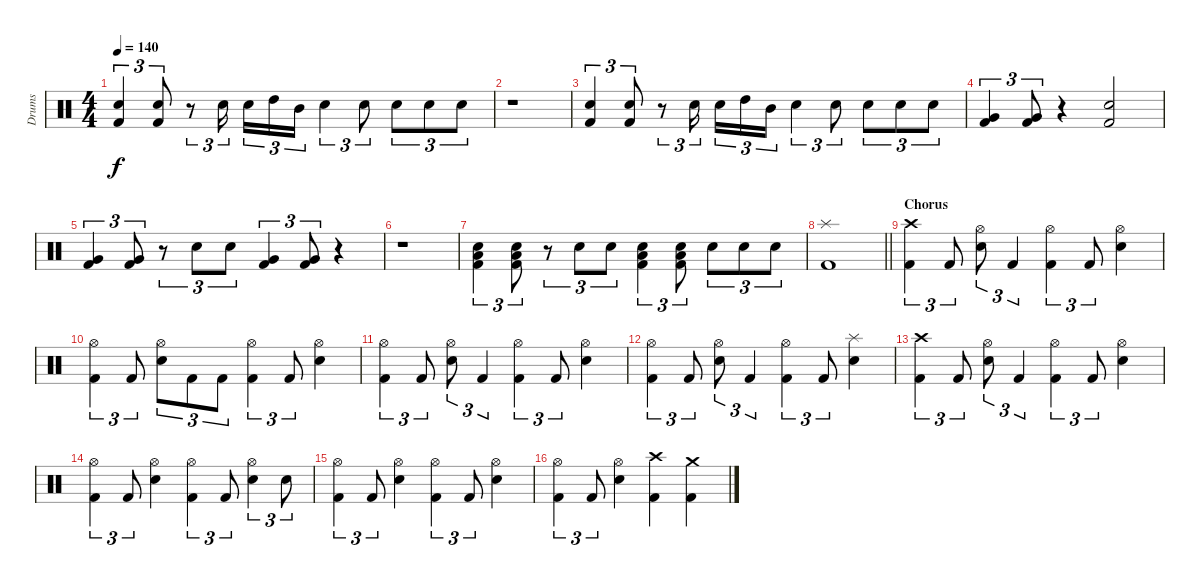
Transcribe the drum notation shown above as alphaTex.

\track ("Drums" "Drums") {instrument percussion}
\staff {score}
\articulation defaults
\ts (4 4)
\tempo 140
\clef neutral
\ks c
("Electric Snare (hit)" "Kick (hit) 2").4{tu (3 2) dy f} ("Electric Snare (hit)" "Kick (hit) 2").8{tu (3 2)} r.8{tu (3 2)} "Electric Snare (hit)".16{tu (3 2) beam splitsecondary} "Electric Snare (hit)".16{tu (3 2)} "High Tom (hit)".16{tu (3 2)} "Mid Tom (hit)".16{tu (3 2)} "Electric Snare (hit)".4{tu (3 2)} "Electric Snare (hit)".8{tu (3 2)} "Electric Snare (hit)".8{tu (3 2)} "Electric Snare (hit)".8{tu (3 2)} "Electric Snare (hit)".8{tu (3 2)} |
r.1 |
("Electric Snare (hit)" "Kick (hit) 2").4{tu (3 2)} ("Electric Snare (hit)" "Kick (hit) 2").8{tu (3 2)} r.8{tu (3 2)} "Electric Snare (hit)".16{tu (3 2) beam splitsecondary} "Electric Snare (hit)".16{tu (3 2)} "High Tom (hit)".16{tu (3 2)} "Mid Tom (hit)".16{tu (3 2)} "Electric Snare (hit)".4{tu (3 2)} "Electric Snare (hit)".8{tu (3 2)} "Electric Snare (hit)".8{tu (3 2)} "Electric Snare (hit)".8{tu (3 2)} "Electric Snare (hit)".8{tu (3 2)} |
("Very Low Tom (hit)" "Kick (hit) 2").4{tu (3 2)} ("Very Low Tom (hit)" "Kick (hit) 2").8{tu (3 2)} r.4 ("Electric Snare (hit)" "Kick (hit) 2").2 |
("Very Low Tom (hit)" "Kick (hit) 2").4{tu (3 2)} ("Very Low Tom (hit)" "Kick (hit) 2").8{tu (3 2)} r.8{tu (3 2)} "Electric Snare (hit)".8{tu (3 2)} "Electric Snare (hit)".8{tu (3 2)} ("Very Low Tom (hit)" "Kick (hit) 2").4{tu (3 2)} ("Very Low Tom (hit)" "Kick (hit) 2").8{tu (3 2)} r.4 |
r.1 |
("Low Floor Tom (hit)" "Electric Snare (hit)" "Kick (hit) 2").4{tu (3 2)} ("Low Floor Tom (hit)" "Electric Snare (hit)" "Kick (hit) 2").8{tu (3 2)} r.8{tu (3 2)} "Electric Snare (hit)".8{tu (3 2)} "Electric Snare (hit)".8{tu (3 2)} ("Low Floor Tom (hit)" "Electric Snare (hit)" "Kick (hit) 2").4{tu (3 2)} ("Low Floor Tom (hit)" "Electric Snare (hit)" "Kick (hit) 2").8{tu (3 2)} "Electric Snare (hit)".8{tu (3 2)} "Electric Snare (hit)".8{tu (3 2)} "Electric Snare (hit)".8{tu (3 2)} |
\barLineRight lightlight
("Splash (hit)" "Kick (hit) 2").1 |
\section ("" "Chorus")
("Crash high (hit)" "Kick (hit) 2").4{tu (3 2)} "Kick (hit) 2".8{tu (3 2)} ("Hi-Hat (open)" "Electric Snare (hit)").8{tu (3 2)} "Kick (hit) 2".4{tu (3 2)} ("Hi-Hat (open)" "Kick (hit) 2").4{tu (3 2)} "Kick (hit) 2".8{tu (3 2)} ("Hi-Hat (open)" "Electric Snare (hit)").4 |
("Hi-Hat (open)" "Kick (hit) 2").4{tu (3 2)} "Kick (hit) 2".8{tu (3 2)} ("Hi-Hat (open)" "Electric Snare (hit)").8{tu (3 2)} "Kick (hit) 2".8{tu (3 2)} "Kick (hit) 2".8{tu (3 2)} ("Hi-Hat (open)" "Kick (hit) 2").4{tu (3 2)} "Kick (hit) 2".8{tu (3 2)} ("Hi-Hat (open)" "Electric Snare (hit)").4 |
("Hi-Hat (open)" "Kick (hit) 2").4{tu (3 2)} "Kick (hit) 2".8{tu (3 2)} ("Hi-Hat (open)" "Electric Snare (hit)").8{tu (3 2)} "Kick (hit) 2".4{tu (3 2)} ("Hi-Hat (open)" "Kick (hit) 2").4{tu (3 2)} "Kick (hit) 2".8{tu (3 2)} ("Hi-Hat (open)" "Electric Snare (hit)").4 |
("Hi-Hat (open)" "Kick (hit) 2").4{tu (3 2)} "Kick (hit) 2".8{tu (3 2)} ("Hi-Hat (open)" "Electric Snare (hit)").8{tu (3 2)} "Kick (hit) 2".4{tu (3 2)} ("Hi-Hat (open)" "Kick (hit) 2").4{tu (3 2)} "Kick (hit) 2".8{tu (3 2)} ("Splash (hit)" "Electric Snare (hit)").4 |
("Crash high (hit)" "Kick (hit) 2").4{tu (3 2)} "Kick (hit) 2".8{tu (3 2)} ("Hi-Hat (open)" "Electric Snare (hit)").8{tu (3 2)} "Kick (hit) 2".4{tu (3 2)} ("Hi-Hat (open)" "Kick (hit) 2").4{tu (3 2)} "Kick (hit) 2".8{tu (3 2)} ("Hi-Hat (open)" "Electric Snare (hit)").4 |
("Hi-Hat (open)" "Kick (hit) 2").4{tu (3 2)} "Kick (hit) 2".8{tu (3 2)} ("Hi-Hat (open)" "Electric Snare (hit)").4 ("Hi-Hat (open)" "Kick (hit) 2").4{tu (3 2)} "Kick (hit) 2".8{tu (3 2)} ("Hi-Hat (open)" "Electric Snare (hit)").4{tu (3 2)} "Electric Snare (hit)".8{tu (3 2)} |
("Hi-Hat (open)" "Kick (hit) 2").4{tu (3 2)} "Kick (hit) 2".8{tu (3 2)} ("Hi-Hat (open)" "Electric Snare (hit)").4 ("Hi-Hat (open)" "Kick (hit) 2").4{tu (3 2)} "Kick (hit) 2".8{tu (3 2)} ("Hi-Hat (open)" "Electric Snare (hit)").4 |
("Hi-Hat (open)" "Kick (hit) 2").4{tu (3 2)} "Kick (hit) 2".8{tu (3 2)} ("Hi-Hat (open)" "Electric Snare (hit)").4 ("Crash high (hit)" "Kick (hit) 2").4 ("Crash medium (hit)" "Kick (hit) 2").4
